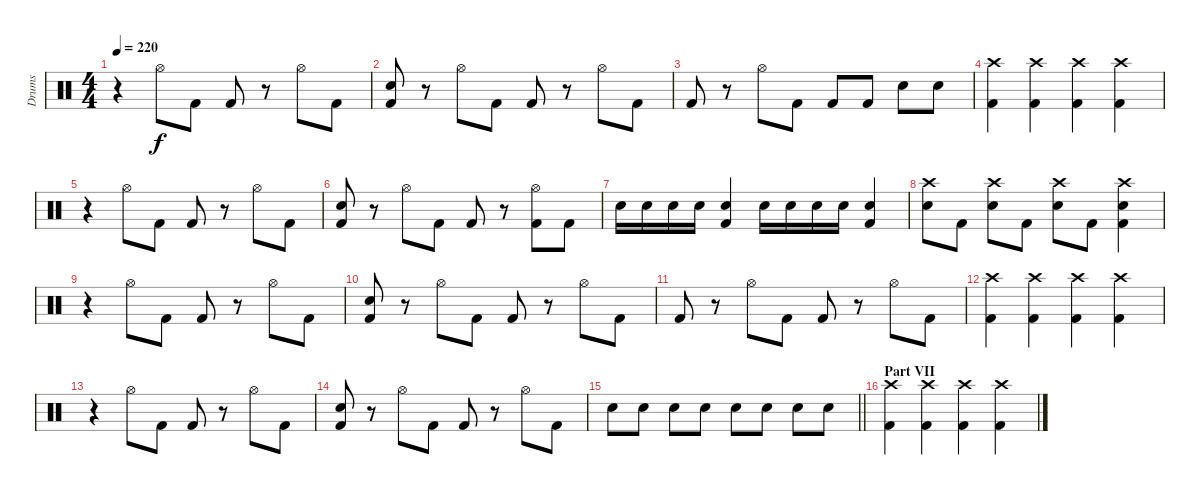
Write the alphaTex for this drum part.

\track ("Drums" "Drums") {instrument percussion}
\staff {score}
\articulation defaults
\ts (4 4)
\tempo 220
\clef neutral
\ks c
r.4{dy f} "Hi-Hat (open)".8 "Kick (hit) 2".8 "Kick (hit) 2".8 r.8 "Hi-Hat (open)".8 "Kick (hit) 2".8 |
("Electric Snare (hit)" "Kick (hit) 2").8 r.8 "Hi-Hat (open)".8 "Kick (hit) 2".8 "Kick (hit) 2".8 r.8 "Hi-Hat (open)".8 "Kick (hit) 2".8 |
"Kick (hit) 2".8 r.8 "Hi-Hat (open)".8 "Kick (hit) 2".8 "Kick (hit) 2".8 "Kick (hit) 2".8 "Electric Snare (hit)".8 "Electric Snare (hit)".8 |
("Crash high (hit)" "Kick (hit) 2").4 ("Crash high (hit)" "Kick (hit) 2").4 ("Crash high (hit)" "Kick (hit) 2").4 ("Crash high (hit)" "Kick (hit) 2").4 |
r.4 "Hi-Hat (open)".8 "Kick (hit) 2".8 "Kick (hit) 2".8 r.8 "Hi-Hat (open)".8 "Kick (hit) 2".8 |
("Electric Snare (hit)" "Kick (hit) 2").8 r.8 "Hi-Hat (open)".8 "Kick (hit) 2".8 "Kick (hit) 2".8 r.8 ("Hi-Hat (open)" "Kick (hit) 2").8 "Kick (hit) 2".8 |
"Electric Snare (hit)".16 "Electric Snare (hit)".16 "Electric Snare (hit)".16 "Electric Snare (hit)".16 ("Electric Snare (hit)" "Kick (hit) 2").4 "Electric Snare (hit)".16 "Electric Snare (hit)".16 "Electric Snare (hit)".16 "Electric Snare (hit)".16 ("Electric Snare (hit)" "Kick (hit) 2").4 |
("Crash high (hit)" "Electric Snare (hit)").8 "Kick (hit) 2".8 ("Crash high (hit)" "Electric Snare (hit)").8 "Kick (hit) 2".8 ("Crash high (hit)" "Electric Snare (hit)").8 "Kick (hit) 2".8 ("Crash high (hit)" "Electric Snare (hit)" "Kick (hit) 2").4 |
r.4 "Hi-Hat (open)".8 "Kick (hit) 2".8 "Kick (hit) 2".8 r.8 "Hi-Hat (open)".8 "Kick (hit) 2".8 |
("Electric Snare (hit)" "Kick (hit) 2").8 r.8 "Hi-Hat (open)".8 "Kick (hit) 2".8 "Kick (hit) 2".8 r.8 "Hi-Hat (open)".8 "Kick (hit) 2".8 |
"Kick (hit) 2".8 r.8 "Hi-Hat (open)".8 "Kick (hit) 2".8 "Kick (hit) 2".8 r.8 "Hi-Hat (open)".8 "Kick (hit) 2".8 |
("Crash high (hit)" "Kick (hit) 2").4 ("Crash high (hit)" "Kick (hit) 2").4 ("Crash high (hit)" "Kick (hit) 2").4 ("Crash high (hit)" "Kick (hit) 2").4 |
r.4 "Hi-Hat (open)".8 "Kick (hit) 2".8 "Kick (hit) 2".8 r.8 "Hi-Hat (open)".8 "Kick (hit) 2".8 |
("Electric Snare (hit)" "Kick (hit) 2").8 r.8 "Hi-Hat (open)".8 "Kick (hit) 2".8 "Kick (hit) 2".8 r.8 "Hi-Hat (open)".8 "Kick (hit) 2".8 |
\barLineRight lightlight "Electric Snare (hit)".8 "Electric Snare (hit)".8 "Electric Snare (hit)".8 "Electric Snare (hit)".8 "Electric Snare (hit)".8 "Electric Snare (hit)".8 "Electric Snare (hit)".8 "Electric Snare (hit)".8
|
\section ("" "Part VII")
("Crash high (hit)" "Kick (hit) 2").4 ("Crash high (hit)" "Kick (hit) 2").4 ("Crash high (hit)" "Kick (hit) 2").4 ("Crash high (hit)" "Kick (hit) 2").4
